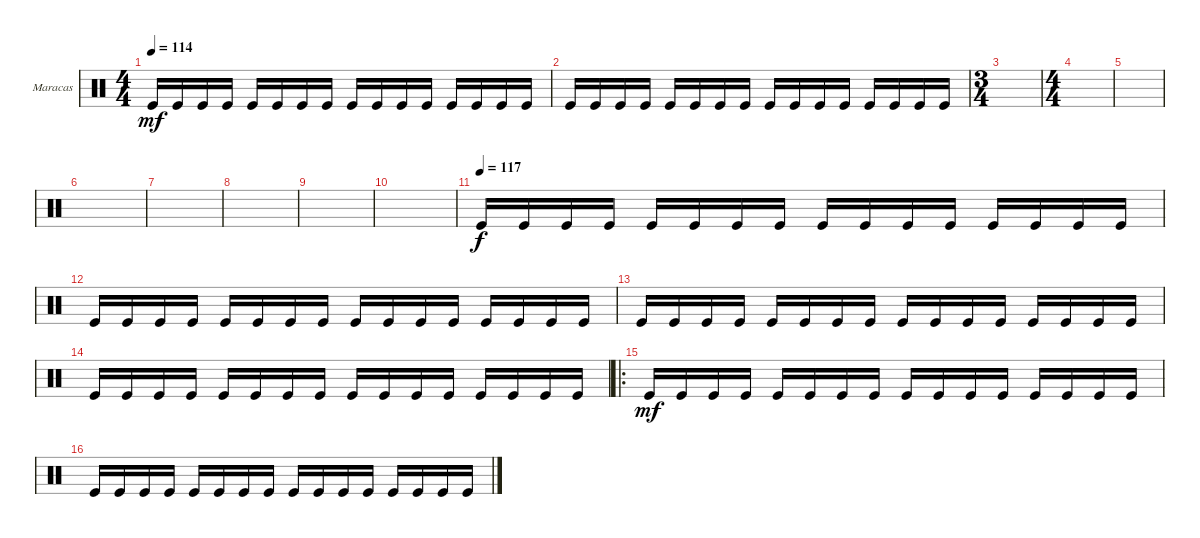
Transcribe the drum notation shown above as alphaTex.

\defaultSystemsLayout 4
\bracketExtendMode groupsimilarinstruments
\firstSystemTrackNameOrientation horizontal
\otherSystemsTrackNameOrientation horizontal
\track ("Maracas" "Maracas") {instrument percussion}
\staff {score}
\articulation defaults
\ts (4 4)
\tempo 114
\clef neutral
\ks c "Kick (hit)".16{dy mf} "Kick (hit)".16 "Kick (hit)".16 "Kick (hit)".16 "Kick (hit)".16 "Kick (hit)".16 "Kick (hit)".16 "Kick (hit)".16 "Kick (hit)".16 "Kick (hit)".16 "Kick (hit)".16 "Kick (hit)".16 "Kick (hit)".16 "Kick (hit)".16 "Kick (hit)".16 "Kick (hit)".16
|
"Kick (hit)".16 "Kick (hit)".16 "Kick (hit)".16 "Kick (hit)".16 "Kick (hit)".16 "Kick (hit)".16 "Kick (hit)".16 "Kick (hit)".16 "Kick (hit)".16 "Kick (hit)".16 "Kick (hit)".16 "Kick (hit)".16 "Kick (hit)".16 "Kick (hit)".16 "Kick (hit)".16 "Kick (hit)".16 |
\ts (3 4)
|
\ts (4 4)
|
|
|
|
|
|
|
\tempo (117)
"Kick (hit)".16{dy f} "Kick (hit)".16 "Kick (hit)".16 "Kick (hit)".16 "Kick (hit)".16 "Kick (hit)".16 "Kick (hit)".16 "Kick (hit)".16 "Kick (hit)".16 "Kick (hit)".16 "Kick (hit)".16 "Kick (hit)".16 "Kick (hit)".16 "Kick (hit)".16 "Kick (hit)".16 "Kick (hit)".16 |
"Kick (hit)".16 "Kick (hit)".16 "Kick (hit)".16 "Kick (hit)".16 "Kick (hit)".16 "Kick (hit)".16 "Kick (hit)".16 "Kick (hit)".16 "Kick (hit)".16 "Kick (hit)".16 "Kick (hit)".16 "Kick (hit)".16 "Kick (hit)".16 "Kick (hit)".16 "Kick (hit)".16 "Kick (hit)".16 |
"Kick (hit)".16 "Kick (hit)".16 "Kick (hit)".16 "Kick (hit)".16 "Kick (hit)".16 "Kick (hit)".16 "Kick (hit)".16 "Kick (hit)".16 "Kick (hit)".16 "Kick (hit)".16 "Kick (hit)".16 "Kick (hit)".16 "Kick (hit)".16 "Kick (hit)".16 "Kick (hit)".16 "Kick (hit)".16 |
"Kick (hit)".16 "Kick (hit)".16 "Kick (hit)".16 "Kick (hit)".16 "Kick (hit)".16 "Kick (hit)".16 "Kick (hit)".16 "Kick (hit)".16 "Kick (hit)".16 "Kick (hit)".16 "Kick (hit)".16 "Kick (hit)".16 "Kick (hit)".16 "Kick (hit)".16 "Kick (hit)".16 "Kick (hit)".16 |
\ro "Kick (hit)".16{dy mf} "Kick (hit)".16 "Kick (hit)".16 "Kick (hit)".16 "Kick (hit)".16 "Kick (hit)".16 "Kick (hit)".16 "Kick (hit)".16 "Kick (hit)".16 "Kick (hit)".16 "Kick (hit)".16 "Kick (hit)".16 "Kick (hit)".16 "Kick (hit)".16 "Kick (hit)".16 "Kick (hit)".16
|
"Kick (hit)".16 "Kick (hit)".16 "Kick (hit)".16 "Kick (hit)".16 "Kick (hit)".16 "Kick (hit)".16 "Kick (hit)".16 "Kick (hit)".16 "Kick (hit)".16 "Kick (hit)".16 "Kick (hit)".16 "Kick (hit)".16 "Kick (hit)".16 "Kick (hit)".16 "Kick (hit)".16 "Kick (hit)".16
